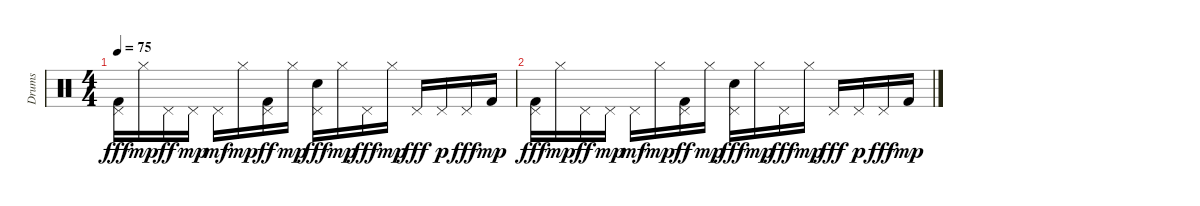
\track ("Drums" "Drums") {instrument percussion}
\staff {score}
\articulation defaults
\ts (4 4)
\tempo 75
\clef neutral
\ks c
("Kick (hit) 2" "Pedal Hi-Hat (hit)").16{dy fff} "Hi-Hat (closed)".16{dy mp} "Pedal Hi-Hat (hit)".16{dy ff} "Pedal Hi-Hat (hit)".16{dy mp} "Pedal Hi-Hat (hit)".16{dy mf} "Hi-Hat (closed)".16{dy mp} ("Kick (hit) 2" "Pedal Hi-Hat (hit)").16{dy ff} "Hi-Hat (closed)".16{dy mp} ("Snare (hit) 2" "Pedal Hi-Hat (hit)").16{dy fff} "Hi-Hat (closed)".16{dy mp} "Pedal Hi-Hat (hit)".16{dy fff} "Hi-Hat (closed)".16{dy mp} "Pedal Hi-Hat (hit)".16{dy fff} "Pedal Hi-Hat (hit)".16{dy p} "Pedal Hi-Hat (hit)".16{dy fff} "Kick (hit) 2".16{dy mp} |
("Kick (hit) 2" "Pedal Hi-Hat (hit)").16{dy fff} "Hi-Hat (closed)".16{dy mp} "Pedal Hi-Hat (hit)".16{dy ff} "Pedal Hi-Hat (hit)".16{dy mp} "Pedal Hi-Hat (hit)".16{dy mf} "Hi-Hat (closed)".16{dy mp} ("Kick (hit) 2" "Pedal Hi-Hat (hit)").16{dy ff} "Hi-Hat (closed)".16{dy mp} ("Snare (hit) 2" "Pedal Hi-Hat (hit)").16{dy fff} "Hi-Hat (closed)".16{dy mp} "Pedal Hi-Hat (hit)".16{dy fff} "Hi-Hat (closed)".16{dy mp} "Pedal Hi-Hat (hit)".16{dy fff} "Pedal Hi-Hat (hit)".16{dy p} "Pedal Hi-Hat (hit)".16{dy fff} "Kick (hit) 2".16{dy mp}
